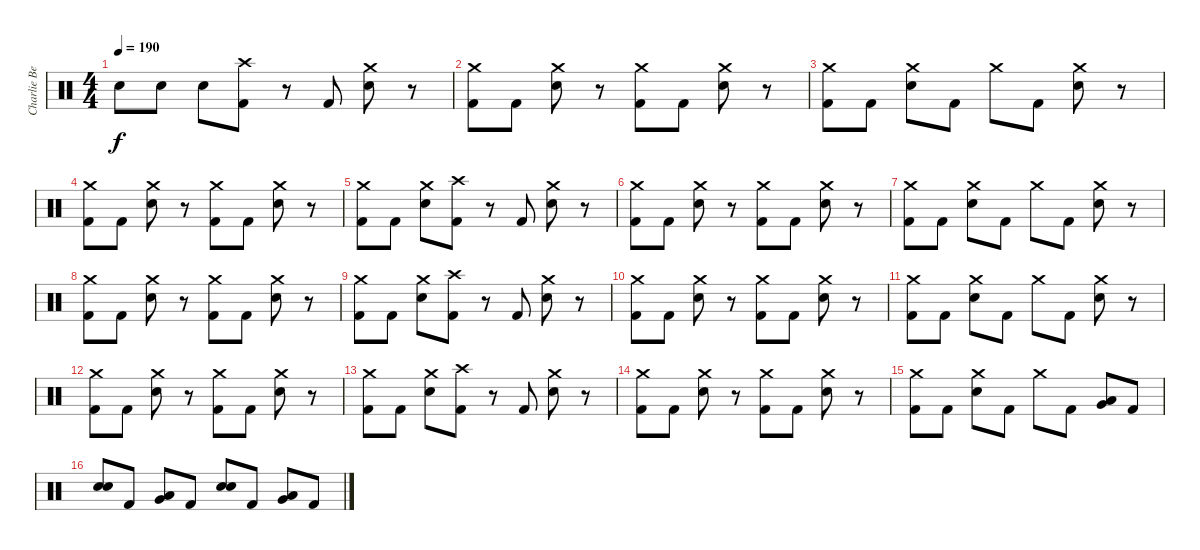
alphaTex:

\track ("Charlie Benante" "Charlie Be") {instrument percussion}
\staff {score}
\articulation defaults
\ts (4 4)
\tempo 190
\clef neutral
\ks c "Snare (hit) 2".8{dy f} "Snare (hit) 2".8 "Snare (hit) 2".8
("Kick (hit) 2" "Crash high (hit)").8 r.8 "Kick (hit) 2".8 ("Snare (hit) 2" "Crash medium (hit)").8 r.8 |
("Kick (hit) 2" "Crash medium (hit)").8 "Kick (hit) 2".8 ("Snare (hit) 2" "Crash medium (hit)").8 r.8 ("Kick (hit) 2" "Crash medium (hit)").8 "Kick (hit) 2".8 ("Snare (hit) 2" "Crash medium (hit)").8 r.8 |
("Kick (hit) 2" "Crash medium (hit)").8 "Kick (hit) 2".8 ("Snare (hit) 2" "Crash medium (hit)").8 "Kick (hit) 2".8 "Crash medium (hit)".8 "Kick (hit) 2".8 ("Snare (hit) 2" "Crash medium (hit)").8 r.8 |
("Kick (hit) 2" "Crash medium (hit)").8 "Kick (hit) 2".8 ("Snare (hit) 2" "Crash medium (hit)").8 r.8 ("Kick (hit) 2" "Crash medium (hit)").8 "Kick (hit) 2".8 ("Snare (hit) 2" "Crash medium (hit)").8 r.8 |
("Kick (hit) 2" "Crash medium (hit)").8 "Kick (hit) 2".8 ("Snare (hit) 2" "Crash medium (hit)").8 ("Kick (hit) 2" "Crash high (hit)").8 r.8 "Kick (hit) 2".8 ("Snare (hit) 2" "Crash medium (hit)").8 r.8 |
("Kick (hit) 2" "Crash medium (hit)").8 "Kick (hit) 2".8 ("Snare (hit) 2" "Crash medium (hit)").8 r.8 ("Kick (hit) 2" "Crash medium (hit)").8 "Kick (hit) 2".8 ("Snare (hit) 2" "Crash medium (hit)").8 r.8 |
("Kick (hit) 2" "Crash medium (hit)").8 "Kick (hit) 2".8 ("Snare (hit) 2" "Crash medium (hit)").8 "Kick (hit) 2".8 "Crash medium (hit)".8 "Kick (hit) 2".8 ("Snare (hit) 2" "Crash medium (hit)").8 r.8 |
("Kick (hit) 2" "Crash medium (hit)").8 "Kick (hit) 2".8 ("Snare (hit) 2" "Crash medium (hit)").8 r.8 ("Kick (hit) 2" "Crash medium (hit)").8 "Kick (hit) 2".8 ("Snare (hit) 2" "Crash medium (hit)").8 r.8 |
("Kick (hit) 2" "Crash medium (hit)").8 "Kick (hit) 2".8 ("Snare (hit) 2" "Crash medium (hit)").8 ("Kick (hit) 2" "Crash high (hit)").8 r.8 "Kick (hit) 2".8 ("Snare (hit) 2" "Crash medium (hit)").8 r.8 |
("Kick (hit) 2" "Crash medium (hit)").8 "Kick (hit) 2".8 ("Snare (hit) 2" "Crash medium (hit)").8 r.8 ("Kick (hit) 2" "Crash medium (hit)").8 "Kick (hit) 2".8 ("Snare (hit) 2" "Crash medium (hit)").8 r.8 |
("Kick (hit) 2" "Crash medium (hit)").8 "Kick (hit) 2".8 ("Snare (hit) 2" "Crash medium (hit)").8 "Kick (hit) 2".8 "Crash medium (hit)".8 "Kick (hit) 2".8 ("Snare (hit) 2" "Crash medium (hit)").8 r.8 |
("Kick (hit) 2" "Crash medium (hit)").8 "Kick (hit) 2".8 ("Snare (hit) 2" "Crash medium (hit)").8 r.8 ("Kick (hit) 2" "Crash medium (hit)").8 "Kick (hit) 2".8 ("Snare (hit) 2" "Crash medium (hit)").8 r.8 |
("Kick (hit) 2" "Crash medium (hit)").8 "Kick (hit) 2".8 ("Snare (hit) 2" "Crash medium (hit)").8 ("Kick (hit) 2" "Crash high (hit)").8 r.8 "Kick (hit) 2".8 ("Snare (hit) 2" "Crash medium (hit)").8 r.8 |
("Kick (hit) 2" "Crash medium (hit)").8 "Kick (hit) 2".8 ("Snare (hit) 2" "Crash medium (hit)").8 r.8 ("Kick (hit) 2" "Crash medium (hit)").8 "Kick (hit) 2".8 ("Snare (hit) 2" "Crash medium (hit)").8 r.8 |
("Kick (hit) 2" "Crash medium (hit)").8 "Kick (hit) 2".8 ("Snare (hit) 2" "Crash medium (hit)").8 "Kick (hit) 2".8 "Crash medium (hit)".8 "Kick (hit) 2".8 ("Very Low Tom (hit)" "Low Floor Tom (hit)").8{bd 120} "Kick (hit) 2".8 |
("Snare (hit) 2" "Snare (hit) 2").8{bd 120} "Kick (hit) 2".8 ("Very Low Tom (hit)" "Low Floor Tom (hit)").8{bd 120} "Kick (hit) 2".8 ("Snare (hit) 2" "Snare (hit) 2").8{bd 120} "Kick (hit) 2".8 ("Very Low Tom (hit)" "Low Floor Tom (hit)").8{bd 120} "Kick (hit) 2".8
